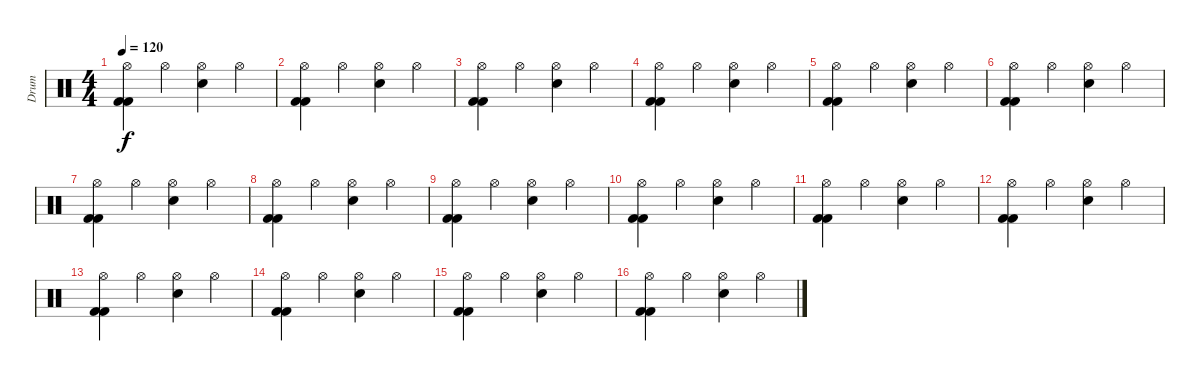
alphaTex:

\track ("Drum" "Drum") {instrument percussion}
\staff {score}
\articulation defaults
\ts (4 4)
\tempo 120
\clef neutral
\ks c
("Kick (hit) 2" "Kick (hit) 2" "Hi-Hat (open)").4{dy f} "Hi-Hat (open)".4 ("Snare (hit) 2" "Hi-Hat (open)").4 "Hi-Hat (open)".4 |
("Kick (hit) 2" "Kick (hit) 2" "Hi-Hat (open)").4 "Hi-Hat (open)".4 ("Snare (hit) 2" "Hi-Hat (open)").4 "Hi-Hat (open)".4 |
("Kick (hit) 2" "Kick (hit) 2" "Hi-Hat (open)").4 "Hi-Hat (open)".4 ("Snare (hit) 2" "Hi-Hat (open)").4 "Hi-Hat (open)".4 |
("Kick (hit) 2" "Kick (hit) 2" "Hi-Hat (open)").4 "Hi-Hat (open)".4 ("Snare (hit) 2" "Hi-Hat (open)").4 "Hi-Hat (open)".4 |
("Kick (hit) 2" "Kick (hit) 2" "Hi-Hat (open)").4 "Hi-Hat (open)".4 ("Snare (hit) 2" "Hi-Hat (open)").4 "Hi-Hat (open)".4 |
("Kick (hit) 2" "Kick (hit) 2" "Hi-Hat (open)").4 "Hi-Hat (open)".4 ("Snare (hit) 2" "Hi-Hat (open)").4 "Hi-Hat (open)".4 |
("Kick (hit) 2" "Kick (hit) 2" "Hi-Hat (open)").4 "Hi-Hat (open)".4 ("Snare (hit) 2" "Hi-Hat (open)").4 "Hi-Hat (open)".4 |
("Kick (hit) 2" "Kick (hit) 2" "Hi-Hat (open)").4 "Hi-Hat (open)".4 ("Snare (hit) 2" "Hi-Hat (open)").4 "Hi-Hat (open)".4 |
("Kick (hit) 2" "Kick (hit) 2" "Hi-Hat (open)").4 "Hi-Hat (open)".4 ("Snare (hit) 2" "Hi-Hat (open)").4 "Hi-Hat (open)".4 |
("Kick (hit) 2" "Kick (hit) 2" "Hi-Hat (open)").4 "Hi-Hat (open)".4 ("Snare (hit) 2" "Hi-Hat (open)").4 "Hi-Hat (open)".4 |
("Kick (hit) 2" "Kick (hit) 2" "Hi-Hat (open)").4 "Hi-Hat (open)".4 ("Snare (hit) 2" "Hi-Hat (open)").4 "Hi-Hat (open)".4 |
("Kick (hit) 2" "Kick (hit) 2" "Hi-Hat (open)").4 "Hi-Hat (open)".4 ("Snare (hit) 2" "Hi-Hat (open)").4 "Hi-Hat (open)".4 |
("Kick (hit) 2" "Kick (hit) 2" "Hi-Hat (open)").4 "Hi-Hat (open)".4 ("Snare (hit) 2" "Hi-Hat (open)").4 "Hi-Hat (open)".4 |
("Kick (hit) 2" "Kick (hit) 2" "Hi-Hat (open)").4 "Hi-Hat (open)".4 ("Snare (hit) 2" "Hi-Hat (open)").4 "Hi-Hat (open)".4 |
("Kick (hit) 2" "Kick (hit) 2" "Hi-Hat (open)").4 "Hi-Hat (open)".4 ("Snare (hit) 2" "Hi-Hat (open)").4 "Hi-Hat (open)".4 |
("Kick (hit) 2" "Kick (hit) 2" "Hi-Hat (open)").4 "Hi-Hat (open)".4 ("Snare (hit) 2" "Hi-Hat (open)").4 "Hi-Hat (open)".4
